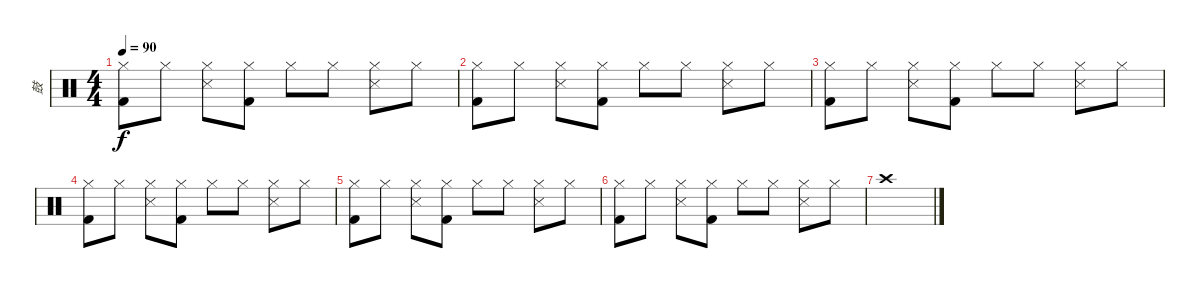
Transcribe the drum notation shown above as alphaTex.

\track ("鼓" "鼓") {instrument percussion}
\staff {score}
\articulation defaults
\ts (4 4)
\tempo 90
\clef neutral
\ks c
("Hi-Hat (closed)" "Kick (hit) 2").8{dy f} "Hi-Hat (closed)".8 ("Hi-Hat (closed)" "Snare (side stick) 3").8 ("Hi-Hat (closed)" "Kick (hit) 2").8 "Hi-Hat (closed)".8 "Hi-Hat (closed)".8 ("Hi-Hat (closed)" "Snare (side stick) 3").8 "Hi-Hat (closed)".8 |
("Hi-Hat (closed)" "Kick (hit) 2").8 "Hi-Hat (closed)".8 ("Hi-Hat (closed)" "Snare (side stick) 3").8 ("Hi-Hat (closed)" "Kick (hit) 2").8 "Hi-Hat (closed)".8 "Hi-Hat (closed)".8 ("Hi-Hat (closed)" "Snare (side stick) 3").8 "Hi-Hat (closed)".8 |
("Hi-Hat (closed)" "Kick (hit) 2").8 "Hi-Hat (closed)".8 ("Hi-Hat (closed)" "Snare (side stick) 3").8 ("Hi-Hat (closed)" "Kick (hit) 2").8 "Hi-Hat (closed)".8 "Hi-Hat (closed)".8 ("Hi-Hat (closed)" "Snare (side stick) 3").8 "Hi-Hat (closed)".8 |
("Hi-Hat (closed)" "Kick (hit) 2").8 "Hi-Hat (closed)".8 ("Hi-Hat (closed)" "Snare (side stick) 3").8 ("Hi-Hat (closed)" "Kick (hit) 2").8 "Hi-Hat (closed)".8 "Hi-Hat (closed)".8 ("Hi-Hat (closed)" "Snare (side stick) 3").8 "Hi-Hat (closed)".8 |
("Hi-Hat (closed)" "Kick (hit) 2").8 "Hi-Hat (closed)".8 ("Hi-Hat (closed)" "Snare (side stick) 3").8 ("Hi-Hat (closed)" "Kick (hit) 2").8 "Hi-Hat (closed)".8 "Hi-Hat (closed)".8 ("Hi-Hat (closed)" "Snare (side stick) 3").8 "Hi-Hat (closed)".8 |
("Hi-Hat (closed)" "Kick (hit) 2").8 "Hi-Hat (closed)".8 ("Hi-Hat (closed)" "Snare (side stick) 3").8 ("Hi-Hat (closed)" "Kick (hit) 2").8 "Hi-Hat (closed)".8 "Hi-Hat (closed)".8 ("Hi-Hat (closed)" "Snare (side stick) 3").8 "Hi-Hat (closed)".8 |
"Crash high (hit)".1
